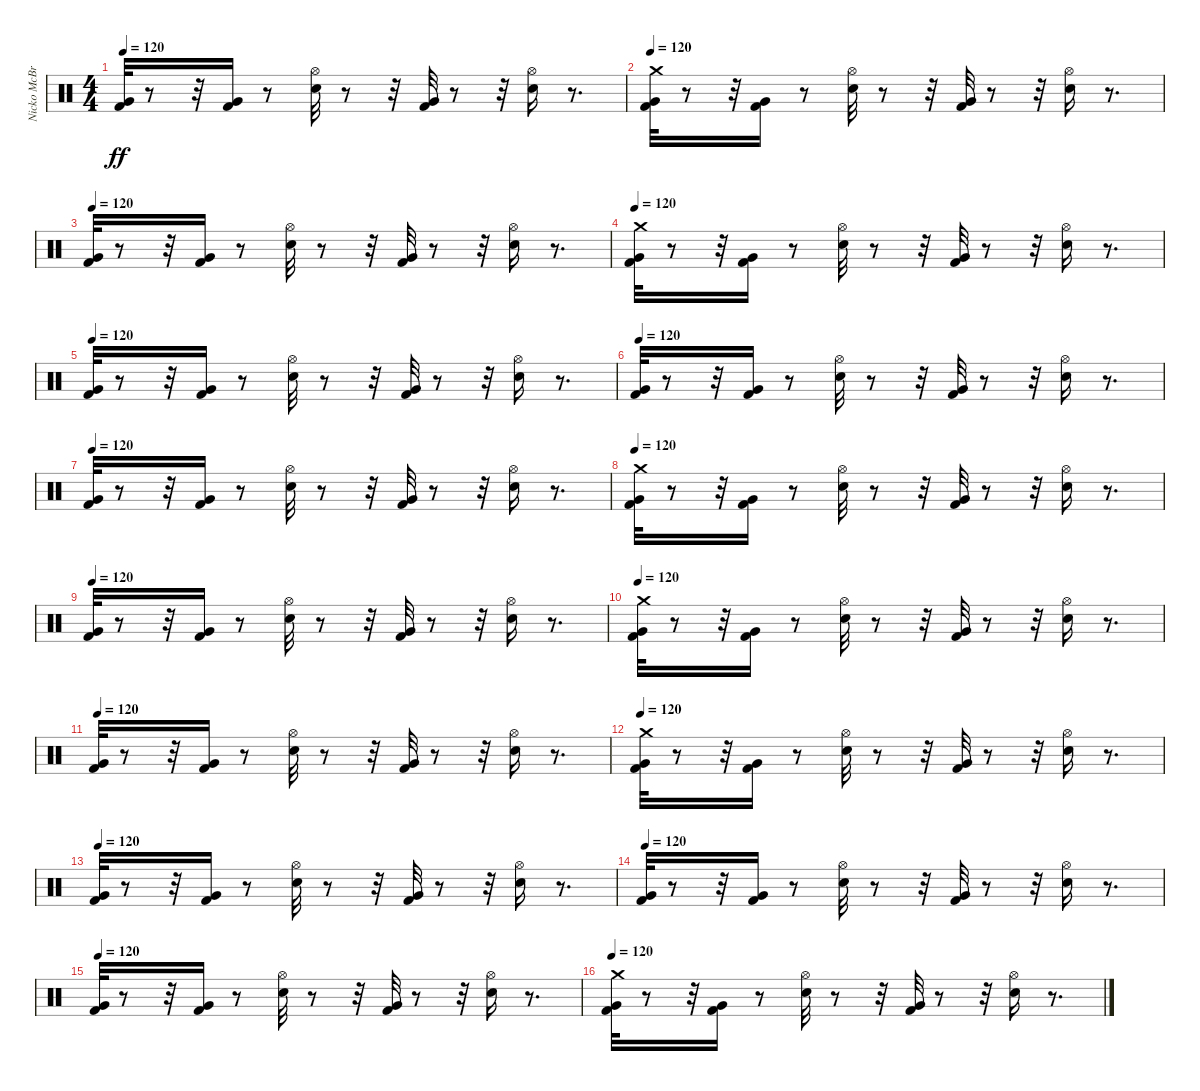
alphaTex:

\track ("Nicko McBrain" "Nicko McBr") {instrument percussion}
\staff {score}
\articulation defaults
\ts (4 4)
\tempo 120
\clef neutral
\ks c
("Kick (hit) 2" "Very Low Tom (hit)").32{dy ff} r.8 r.32 ("Kick (hit) 2" "Very Low Tom (hit)").16 r.8 ("Electric Snare (hit)" "Hi-Hat (open)").32 r.8 r.32 ("Kick (hit) 2" "Very Low Tom (hit)").32 r.8 r.32 ("Electric Snare (hit)" "Hi-Hat (open)").16 r.8{d} |
\tempo 120
("Kick (hit) 2" "Very Low Tom (hit)" "Crash medium (hit)").32 r.8 r.32 ("Kick (hit) 2" "Very Low Tom (hit)").16 r.8 ("Electric Snare (hit)" "Hi-Hat (open)").32 r.8 r.32 ("Kick (hit) 2" "Very Low Tom (hit)").32 r.8 r.32 ("Electric Snare (hit)" "Hi-Hat (open)").16 r.8{d} |
\tempo 120
("Kick (hit) 2" "Very Low Tom (hit)").32 r.8 r.32 ("Kick (hit) 2" "Very Low Tom (hit)").16 r.8 ("Electric Snare (hit)" "Hi-Hat (open)").32 r.8 r.32 ("Kick (hit) 2" "Very Low Tom (hit)").32 r.8 r.32 ("Electric Snare (hit)" "Hi-Hat (open)").16 r.8{d} |
\tempo 120
("Kick (hit) 2" "Very Low Tom (hit)" "Crash medium (hit)").32 r.8 r.32 ("Kick (hit) 2" "Very Low Tom (hit)").16 r.8 ("Electric Snare (hit)" "Hi-Hat (open)").32 r.8 r.32 ("Kick (hit) 2" "Very Low Tom (hit)").32 r.8 r.32 ("Electric Snare (hit)" "Hi-Hat (open)").16 r.8{d} |
\tempo 120
("Kick (hit) 2" "Very Low Tom (hit)").32 r.8 r.32 ("Kick (hit) 2" "Very Low Tom (hit)").16 r.8 ("Electric Snare (hit)" "Hi-Hat (open)").32 r.8 r.32 ("Kick (hit) 2" "Very Low Tom (hit)").32 r.8 r.32 ("Electric Snare (hit)" "Hi-Hat (open)").16 r.8{d} |
\tempo 120
("Kick (hit) 2" "Very Low Tom (hit)").32 r.8 r.32 ("Kick (hit) 2" "Very Low Tom (hit)").16 r.8 ("Electric Snare (hit)" "Hi-Hat (open)").32 r.8 r.32 ("Kick (hit) 2" "Very Low Tom (hit)").32 r.8 r.32 ("Electric Snare (hit)" "Hi-Hat (open)").16 r.8{d} |
\tempo 120
("Kick (hit) 2" "Very Low Tom (hit)").32 r.8 r.32 ("Kick (hit) 2" "Very Low Tom (hit)").16 r.8 ("Electric Snare (hit)" "Hi-Hat (open)").32 r.8 r.32 ("Kick (hit) 2" "Very Low Tom (hit)").32 r.8 r.32 ("Electric Snare (hit)" "Hi-Hat (open)").16 r.8{d} |
\tempo 120
("Kick (hit) 2" "Very Low Tom (hit)" "Crash medium (hit)").32 r.8 r.32 ("Kick (hit) 2" "Very Low Tom (hit)").16 r.8 ("Electric Snare (hit)" "Hi-Hat (open)").32 r.8 r.32 ("Kick (hit) 2" "Very Low Tom (hit)").32 r.8 r.32 ("Electric Snare (hit)" "Hi-Hat (open)").16 r.8{d} |
\tempo 120
("Kick (hit) 2" "Very Low Tom (hit)").32 r.8 r.32 ("Kick (hit) 2" "Very Low Tom (hit)").16 r.8 ("Electric Snare (hit)" "Hi-Hat (open)").32 r.8 r.32 ("Kick (hit) 2" "Very Low Tom (hit)").32 r.8 r.32 ("Electric Snare (hit)" "Hi-Hat (open)").16 r.8{d} |
\tempo 120
("Kick (hit) 2" "Very Low Tom (hit)" "Crash medium (hit)").32 r.8 r.32 ("Kick (hit) 2" "Very Low Tom (hit)").16 r.8 ("Electric Snare (hit)" "Hi-Hat (open)").32 r.8 r.32 ("Kick (hit) 2" "Very Low Tom (hit)").32 r.8 r.32 ("Electric Snare (hit)" "Hi-Hat (open)").16 r.8{d} |
\tempo 120
("Kick (hit) 2" "Very Low Tom (hit)").32 r.8 r.32 ("Kick (hit) 2" "Very Low Tom (hit)").16 r.8 ("Electric Snare (hit)" "Hi-Hat (open)").32 r.8 r.32 ("Kick (hit) 2" "Very Low Tom (hit)").32 r.8 r.32 ("Electric Snare (hit)" "Hi-Hat (open)").16 r.8{d} |
\tempo 120
("Kick (hit) 2" "Very Low Tom (hit)" "Crash medium (hit)").32 r.8 r.32 ("Kick (hit) 2" "Very Low Tom (hit)").16 r.8 ("Electric Snare (hit)" "Hi-Hat (open)").32 r.8 r.32 ("Kick (hit) 2" "Very Low Tom (hit)").32 r.8 r.32 ("Electric Snare (hit)" "Hi-Hat (open)").16 r.8{d} |
\tempo 120
("Kick (hit) 2" "Very Low Tom (hit)").32 r.8 r.32 ("Kick (hit) 2" "Very Low Tom (hit)").16 r.8 ("Electric Snare (hit)" "Hi-Hat (open)").32 r.8 r.32 ("Kick (hit) 2" "Very Low Tom (hit)").32 r.8 r.32 ("Electric Snare (hit)" "Hi-Hat (open)").16 r.8{d} |
\tempo 120
("Kick (hit) 2" "Very Low Tom (hit)").32 r.8 r.32 ("Kick (hit) 2" "Very Low Tom (hit)").16 r.8 ("Electric Snare (hit)" "Hi-Hat (open)").32 r.8 r.32 ("Kick (hit) 2" "Very Low Tom (hit)").32 r.8 r.32 ("Electric Snare (hit)" "Hi-Hat (open)").16 r.8{d} |
\tempo 120
("Kick (hit) 2" "Very Low Tom (hit)").32 r.8 r.32 ("Kick (hit) 2" "Very Low Tom (hit)").16 r.8 ("Electric Snare (hit)" "Hi-Hat (open)").32 r.8 r.32 ("Kick (hit) 2" "Very Low Tom (hit)").32 r.8 r.32 ("Electric Snare (hit)" "Hi-Hat (open)").16 r.8{d} |
\tempo 120
("Kick (hit) 2" "Very Low Tom (hit)" "Crash medium (hit)").32 r.8 r.32 ("Kick (hit) 2" "Very Low Tom (hit)").16 r.8 ("Electric Snare (hit)" "Hi-Hat (open)").32 r.8 r.32 ("Kick (hit) 2" "Very Low Tom (hit)").32 r.8 r.32 ("Electric Snare (hit)" "Hi-Hat (open)").16 r.8{d}
